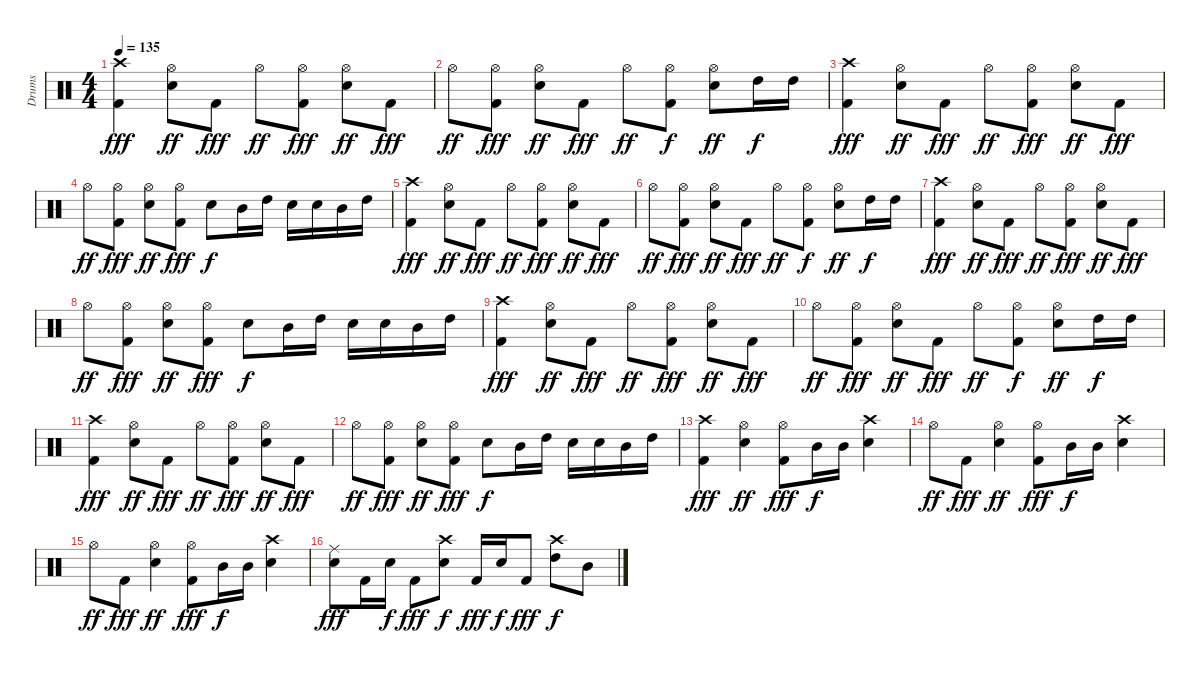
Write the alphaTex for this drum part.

\track ("Drums" "Drums") {instrument percussion}
\staff {score}
\articulation defaults
\ts (4 4)
\tempo 135
\clef neutral
\ks c
("Crash high (hit)" "Kick (hit) 2").4{dy fff} ("Hi-Hat (open)" "Snare (hit) 2").8{dy ff} "Kick (hit) 2".8{dy fff} "Hi-Hat (open)".8{dy ff} ("Hi-Hat (open)" "Kick (hit) 2").8{dy fff} ("Hi-Hat (open)" "Snare (hit) 2").8{dy ff} "Kick (hit) 2".8{dy fff} |
"Hi-Hat (open)".8{dy ff} ("Hi-Hat (open)" "Kick (hit) 2").8{dy fff} ("Hi-Hat (open)" "Snare (hit) 2").8{dy ff} "Kick (hit) 2".8{dy fff} "Hi-Hat (open)".8{dy ff} ("Hi-Hat (open)" "Kick (hit) 2").8{dy f} ("Hi-Hat (open)" "Snare (hit) 2").8{dy ff} "High Tom (hit)".16{dy f} "High Tom (hit)".16 |
("Crash high (hit)" "Kick (hit) 2").4{dy fff} ("Hi-Hat (open)" "Snare (hit) 2").8{dy ff} "Kick (hit) 2".8{dy fff} "Hi-Hat (open)".8{dy ff} ("Hi-Hat (open)" "Kick (hit) 2").8{dy fff} ("Hi-Hat (open)" "Snare (hit) 2").8{dy ff} "Kick (hit) 2".8{dy fff} |
"Hi-Hat (open)".8{dy ff} ("Hi-Hat (open)" "Kick (hit) 2").8{dy fff} ("Hi-Hat (open)" "Snare (hit) 2").8{dy ff} ("Hi-Hat (open)" "Kick (hit) 2").8{dy fff} "Snare (hit) 2".8{dy f} "Mid Tom (hit)".16 "High Tom (hit)".16 "Snare (hit) 2".16 "Snare (hit) 2".16 "Mid Tom (hit)".16 "High Tom (hit)".16 |
("Crash high (hit)" "Kick (hit) 2").4{dy fff} ("Hi-Hat (open)" "Snare (hit) 2").8{dy ff} "Kick (hit) 2".8{dy fff} "Hi-Hat (open)".8{dy ff} ("Hi-Hat (open)" "Kick (hit) 2").8{dy fff} ("Hi-Hat (open)" "Snare (hit) 2").8{dy ff} "Kick (hit) 2".8{dy fff} |
"Hi-Hat (open)".8{dy ff} ("Hi-Hat (open)" "Kick (hit) 2").8{dy fff} ("Hi-Hat (open)" "Snare (hit) 2").8{dy ff} "Kick (hit) 2".8{dy fff} "Hi-Hat (open)".8{dy ff} ("Hi-Hat (open)" "Kick (hit) 2").8{dy f} ("Hi-Hat (open)" "Snare (hit) 2").8{dy ff} "High Tom (hit)".16{dy f} "High Tom (hit)".16 |
("Crash high (hit)" "Kick (hit) 2").4{dy fff} ("Hi-Hat (open)" "Snare (hit) 2").8{dy ff} "Kick (hit) 2".8{dy fff} "Hi-Hat (open)".8{dy ff} ("Hi-Hat (open)" "Kick (hit) 2").8{dy fff} ("Hi-Hat (open)" "Snare (hit) 2").8{dy ff} "Kick (hit) 2".8{dy fff} |
"Hi-Hat (open)".8{dy ff} ("Hi-Hat (open)" "Kick (hit) 2").8{dy fff} ("Hi-Hat (open)" "Snare (hit) 2").8{dy ff} ("Hi-Hat (open)" "Kick (hit) 2").8{dy fff} "Snare (hit) 2".8{dy f} "Mid Tom (hit)".16 "High Tom (hit)".16 "Snare (hit) 2".16 "Snare (hit) 2".16 "Mid Tom (hit)".16 "High Tom (hit)".16 |
("Crash high (hit)" "Kick (hit) 2").4{dy fff} ("Hi-Hat (open)" "Snare (hit) 2").8{dy ff} "Kick (hit) 2".8{dy fff} "Hi-Hat (open)".8{dy ff} ("Hi-Hat (open)" "Kick (hit) 2").8{dy fff} ("Hi-Hat (open)" "Snare (hit) 2").8{dy ff} "Kick (hit) 2".8{dy fff} |
"Hi-Hat (open)".8{dy ff} ("Hi-Hat (open)" "Kick (hit) 2").8{dy fff} ("Hi-Hat (open)" "Snare (hit) 2").8{dy ff} "Kick (hit) 2".8{dy fff} "Hi-Hat (open)".8{dy ff} ("Hi-Hat (open)" "Kick (hit) 2").8{dy f} ("Hi-Hat (open)" "Snare (hit) 2").8{dy ff} "High Tom (hit)".16{dy f} "High Tom (hit)".16 |
("Crash high (hit)" "Kick (hit) 2").4{dy fff} ("Hi-Hat (open)" "Snare (hit) 2").8{dy ff} "Kick (hit) 2".8{dy fff} "Hi-Hat (open)".8{dy ff} ("Hi-Hat (open)" "Kick (hit) 2").8{dy fff} ("Hi-Hat (open)" "Snare (hit) 2").8{dy ff} "Kick (hit) 2".8{dy fff} |
"Hi-Hat (open)".8{dy ff} ("Hi-Hat (open)" "Kick (hit) 2").8{dy fff} ("Hi-Hat (open)" "Snare (hit) 2").8{dy ff} ("Hi-Hat (open)" "Kick (hit) 2").8{dy fff} "Snare (hit) 2".8{dy f} "Mid Tom (hit)".16 "High Tom (hit)".16 "Snare (hit) 2".16 "Snare (hit) 2".16 "Mid Tom (hit)".16 "High Tom (hit)".16 |
("Crash high (hit)" "Kick (hit) 2").4{dy fff} ("Hi-Hat (open)" "Snare (hit) 2").4{dy ff} ("Hi-Hat (open)" "Kick (hit) 2").8{dy fff} "Mid Tom (hit)".16{dy f} "Mid Tom (hit)".16 ("Crash high (hit)" "Snare (hit) 2").4 |
"Hi-Hat (open)".8{dy ff} "Kick (hit) 2".8{dy fff} ("Hi-Hat (open)" "Snare (hit) 2").4{dy ff} ("Hi-Hat (open)" "Kick (hit) 2").8{dy fff} "Mid Tom (hit)".16{dy f} "Mid Tom (hit)".16 ("Crash high (hit)" "Snare (hit) 2").4 |
"Hi-Hat (open)".8{dy ff} "Kick (hit) 2".8{dy fff} ("Hi-Hat (open)" "Snare (hit) 2").4{dy ff} ("Hi-Hat (open)" "Kick (hit) 2").8{dy fff} "Mid Tom (hit)".16{dy f} "Mid Tom (hit)".16 ("Crash high (hit)" "Snare (hit) 2").4 |
("Ride (middle)" "Snare (hit) 2").8{dy fff} "Kick (hit) 2".16 "Snare (hit) 2".16{dy f} "Kick (hit) 2".8{dy fff} ("Crash high (hit)" "Snare (hit) 2").8{dy f} "Kick (hit) 2".16{dy fff} "Snare (hit) 2".16{dy f} "Kick (hit) 2".8{dy fff} ("Crash high (hit)" "High Tom (hit)").8{dy f} "Mid Tom (hit)".8
